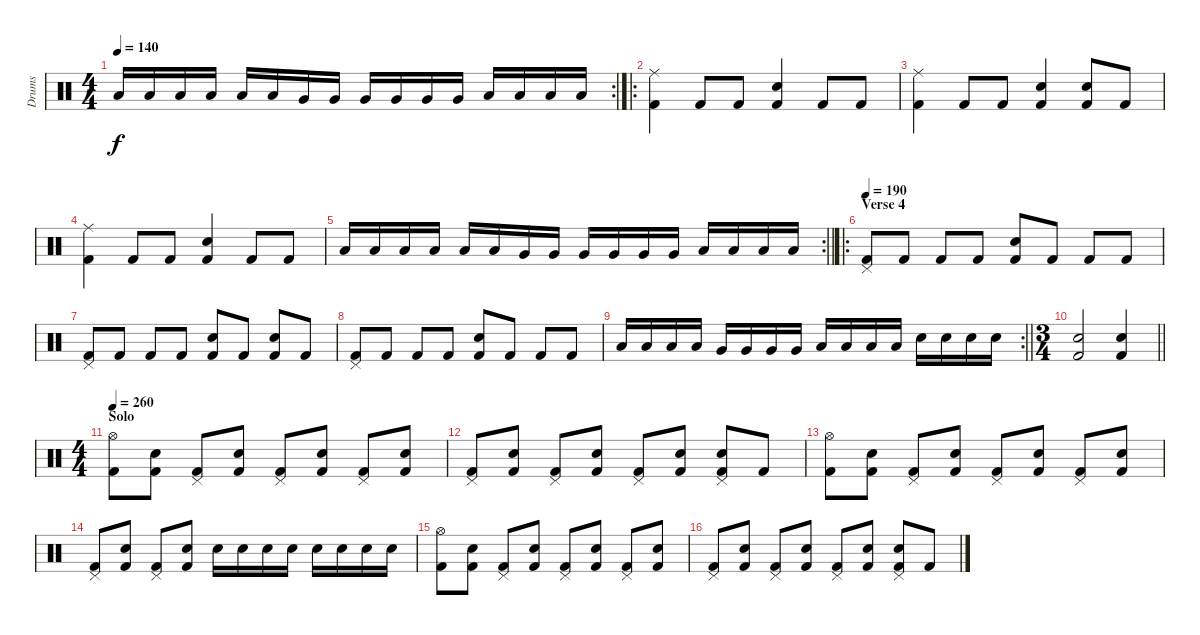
\track ("Drums" "Drums") {instrument percussion}
\staff {score}
\articulation defaults
\rc 2
\ts (4 4)
\tempo 140
\clef neutral
\ks c "Low Tom (hit)".16{dy f} "Low Tom (hit)".16 "Low Tom (hit)".16 "Low Tom (hit)".16 "Low Tom (hit)".16 "Low Tom (hit)".16 "Very Low Tom (hit)".16 "Very Low Tom (hit)".16 "Very Low Tom (hit)".16 "Very Low Tom (hit)".16 "Very Low Tom (hit)".16 "Very Low Tom (hit)".16 "Low Floor Tom (hit)".16 "Low Floor Tom (hit)".16 "Low Floor Tom (hit)".16 "Low Floor Tom (hit)".16
|
\ro
("Ride (middle)" "Kick (hit) 2").4 "Kick (hit) 2".8 "Kick (hit) 2".8 ("Snare (hit) 2" "Kick (hit) 2").4 "Kick (hit) 2".8 "Kick (hit) 2".8 |
("Ride (middle)" "Kick (hit) 2").4 "Kick (hit) 2".8 "Kick (hit) 2".8 ("Snare (hit) 2" "Kick (hit) 2").4 ("Snare (hit) 2" "Kick (hit) 2").8 "Kick (hit) 2".8 |
("Ride (middle)" "Kick (hit) 2").4 "Kick (hit) 2".8 "Kick (hit) 2".8 ("Snare (hit) 2" "Kick (hit) 2").4 "Kick (hit) 2".8 "Kick (hit) 2".8 |
\rc 2
\barLineRight lightlight "Low Tom (hit)".16 "Low Tom (hit)".16 "Low Tom (hit)".16 "Low Tom (hit)".16 "Low Tom (hit)".16 "Low Tom (hit)".16 "Very Low Tom (hit)".16 "Very Low Tom (hit)".16 "Very Low Tom (hit)".16 "Very Low Tom (hit)".16 "Very Low Tom (hit)".16 "Very Low Tom (hit)".16 "Low Floor Tom (hit)".16 "Low Floor Tom (hit)".16 "Low Floor Tom (hit)".16 "Low Floor Tom (hit)".16
|
\ro
\section ("" "Verse 4")
\tempo 190
("Pedal Hi-Hat (hit)" "Kick (hit) 2").8 "Kick (hit) 2".8 "Kick (hit) 2".8 "Kick (hit) 2".8 ("Snare (hit) 2" "Kick (hit) 2").8 "Kick (hit) 2".8 "Kick (hit) 2".8 "Kick (hit) 2".8 |
("Pedal Hi-Hat (hit)" "Kick (hit) 2").8 "Kick (hit) 2".8 "Kick (hit) 2".8 "Kick (hit) 2".8 ("Snare (hit) 2" "Kick (hit) 2").8 "Kick (hit) 2".8 ("Snare (hit) 2" "Kick (hit) 2").8 "Kick (hit) 2".8 |
("Pedal Hi-Hat (hit)" "Kick (hit) 2").8 "Kick (hit) 2".8 "Kick (hit) 2".8 "Kick (hit) 2".8 ("Snare (hit) 2" "Kick (hit) 2").8 "Kick (hit) 2".8 "Kick (hit) 2".8 "Kick (hit) 2".8 |
\rc 2
\barLineRight lightlight "Low Tom (hit)".16 "Low Tom (hit)".16 "Low Tom (hit)".16 "Low Tom (hit)".16 "Very Low Tom (hit)".16 "Very Low Tom (hit)".16 "Very Low Tom (hit)".16 "Very Low Tom (hit)".16 "Low Floor Tom (hit)".16 "Low Floor Tom (hit)".16 "Low Floor Tom (hit)".16 "Low Floor Tom (hit)".16 "Snare (hit) 2".16 "Snare (hit) 2".16 "Snare (hit) 2".16 "Snare (hit) 2".16
|
\ts (3 4)
\barLineRight lightlight
("Snare (hit) 2" "Kick (hit) 2").2 ("Snare (hit) 2" "Kick (hit) 2").4 |
\ts (4 4)
\section ("" "Solo")
\tempo 260
("Hi-Hat (open)" "Kick (hit) 2").8 ("Snare (hit) 2" "Kick (hit) 2").8 ("Pedal Hi-Hat (hit)" "Kick (hit) 2").8 ("Snare (hit) 2" "Kick (hit) 2").8 ("Pedal Hi-Hat (hit)" "Kick (hit) 2").8 ("Snare (hit) 2" "Kick (hit) 2").8 ("Pedal Hi-Hat (hit)" "Kick (hit) 2").8 ("Snare (hit) 2" "Kick (hit) 2").8 |
("Pedal Hi-Hat (hit)" "Kick (hit) 2").8 ("Snare (hit) 2" "Kick (hit) 2").8 ("Pedal Hi-Hat (hit)" "Kick (hit) 2").8 ("Snare (hit) 2" "Kick (hit) 2").8 ("Pedal Hi-Hat (hit)" "Kick (hit) 2").8 ("Snare (hit) 2" "Kick (hit) 2").8 ("Pedal Hi-Hat (hit)" "Snare (hit) 2" "Kick (hit) 2").8 "Kick (hit) 2".8 |
("Hi-Hat (open)" "Kick (hit) 2").8 ("Snare (hit) 2" "Kick (hit) 2").8 ("Pedal Hi-Hat (hit)" "Kick (hit) 2").8 ("Snare (hit) 2" "Kick (hit) 2").8 ("Pedal Hi-Hat (hit)" "Kick (hit) 2").8 ("Snare (hit) 2" "Kick (hit) 2").8 ("Pedal Hi-Hat (hit)" "Kick (hit) 2").8 ("Snare (hit) 2" "Kick (hit) 2").8 |
("Pedal Hi-Hat (hit)" "Kick (hit) 2").8 ("Snare (hit) 2" "Kick (hit) 2").8 ("Pedal Hi-Hat (hit)" "Kick (hit) 2").8 ("Snare (hit) 2" "Kick (hit) 2").8 "Snare (hit) 2".16 "Snare (hit) 2".16 "Snare (hit) 2".16 "Snare (hit) 2".16 "Snare (hit) 2".16 "Snare (hit) 2".16 "Snare (hit) 2".16 "Snare (hit) 2".16 |
("Hi-Hat (open)" "Kick (hit) 2").8 ("Snare (hit) 2" "Kick (hit) 2").8 ("Pedal Hi-Hat (hit)" "Kick (hit) 2").8 ("Snare (hit) 2" "Kick (hit) 2").8 ("Pedal Hi-Hat (hit)" "Kick (hit) 2").8 ("Snare (hit) 2" "Kick (hit) 2").8 ("Pedal Hi-Hat (hit)" "Kick (hit) 2").8 ("Snare (hit) 2" "Kick (hit) 2").8 |
("Pedal Hi-Hat (hit)" "Kick (hit) 2").8 ("Snare (hit) 2" "Kick (hit) 2").8 ("Pedal Hi-Hat (hit)" "Kick (hit) 2").8 ("Snare (hit) 2" "Kick (hit) 2").8 ("Pedal Hi-Hat (hit)" "Kick (hit) 2").8 ("Snare (hit) 2" "Kick (hit) 2").8 ("Pedal Hi-Hat (hit)" "Snare (hit) 2" "Kick (hit) 2").8 "Kick (hit) 2".8
